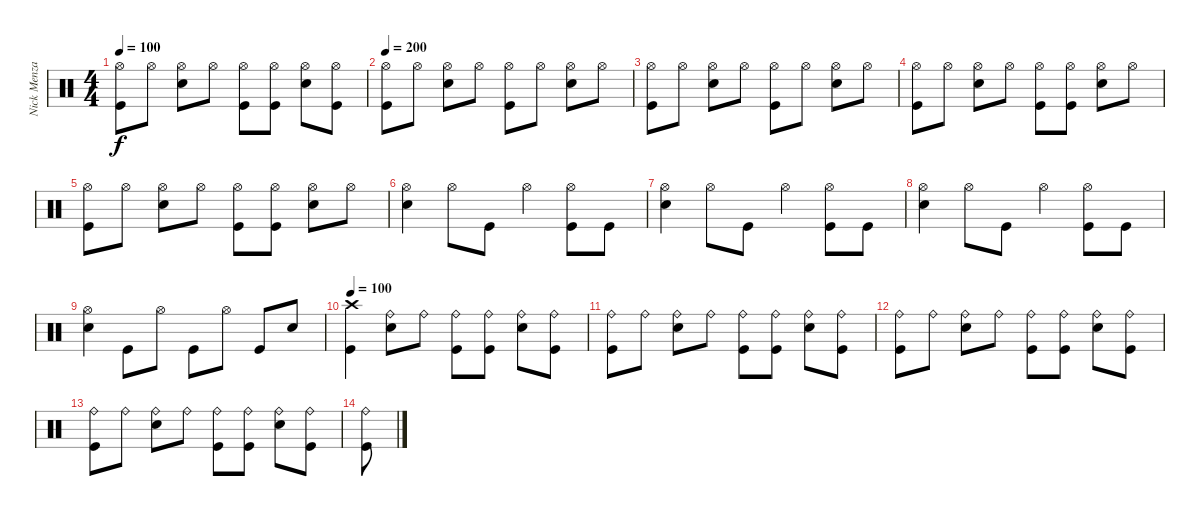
\track ("Nick Menza" "Nick Menza") {instrument percussion}
\staff {score}
\articulation defaults
\ts (4 4)
\tempo 100
\clef neutral
\ks c
("Hi-Hat (open)" "Kick (hit)").8{dy f} "Hi-Hat (open)".8 ("Hi-Hat (open)" "Snare (hit) 2").8 "Hi-Hat (open)".8 ("Hi-Hat (open)" "Kick (hit)").8 ("Hi-Hat (open)" "Kick (hit)").8 ("Hi-Hat (open)" "Snare (hit) 2").8 ("Hi-Hat (open)" "Kick (hit)").8 |
\tempo 200
("Hi-Hat (open)" "Kick (hit)").8 "Hi-Hat (open)".8 ("Hi-Hat (open)" "Snare (hit) 2").8 "Hi-Hat (open)".8 ("Hi-Hat (open)" "Kick (hit)").8 "Hi-Hat (open)".8 ("Hi-Hat (open)" "Snare (hit) 2").8 "Hi-Hat (open)".8 |
("Hi-Hat (open)" "Kick (hit)").8 "Hi-Hat (open)".8 ("Hi-Hat (open)" "Snare (hit) 2").8 "Hi-Hat (open)".8 ("Hi-Hat (open)" "Kick (hit)").8 "Hi-Hat (open)".8 ("Hi-Hat (open)" "Snare (hit) 2").8 "Hi-Hat (open)".8 |
("Hi-Hat (open)" "Kick (hit)").8 "Hi-Hat (open)".8 ("Hi-Hat (open)" "Snare (hit) 2").8 "Hi-Hat (open)".8 ("Hi-Hat (open)" "Kick (hit)").8 ("Hi-Hat (open)" "Kick (hit)").8 ("Hi-Hat (open)" "Snare (hit) 2").8 "Hi-Hat (open)".8 |
("Hi-Hat (open)" "Kick (hit)").8 "Hi-Hat (open)".8 ("Hi-Hat (open)" "Snare (hit) 2").8 "Hi-Hat (open)".8 ("Hi-Hat (open)" "Kick (hit)").8 ("Hi-Hat (open)" "Kick (hit)").8 ("Hi-Hat (open)" "Snare (hit) 2").8 "Hi-Hat (open)".8 |
("Hi-Hat (open)" "Snare (hit) 2").4 "Hi-Hat (open)".8 "Kick (hit)".8 "Hi-Hat (open)".4 ("Hi-Hat (open)" "Kick (hit)").8 "Kick (hit)".8 |
("Hi-Hat (open)" "Snare (hit) 2").4 "Hi-Hat (open)".8 "Kick (hit)".8 "Hi-Hat (open)".4 ("Hi-Hat (open)" "Kick (hit)").8 "Kick (hit)".8 |
("Hi-Hat (open)" "Snare (hit) 2").4 "Hi-Hat (open)".8 "Kick (hit)".8 "Hi-Hat (open)".4 ("Hi-Hat (open)" "Kick (hit)").8 "Kick (hit)".8 |
("Hi-Hat (open)" "Snare (hit) 2").4 "Kick (hit)".8 "Hi-Hat (open)".8 "Kick (hit)".8 "Hi-Hat (open)".8 "Kick (hit)".8 "Snare (hit) 2".8 |
\tempo 100
("Crash high (hit)" "Kick (hit)").4 ("Ride (bell)" "Snare (hit) 2").8 "Ride (bell)".8 ("Ride (bell)" "Kick (hit)").8 ("Ride (bell)" "Kick (hit)").8 ("Ride (bell)" "Snare (hit) 2").8 ("Ride (bell)" "Kick (hit)").8 |
("Ride (bell)" "Kick (hit)").8 "Ride (bell)".8 ("Ride (bell)" "Snare (hit) 2").8 "Ride (bell)".8 ("Ride (bell)" "Kick (hit)").8 ("Ride (bell)" "Kick (hit)").8 ("Ride (bell)" "Snare (hit) 2").8 ("Ride (bell)" "Kick (hit)").8 |
("Ride (bell)" "Kick (hit)").8 "Ride (bell)".8 ("Ride (bell)" "Snare (hit) 2").8 "Ride (bell)".8 ("Ride (bell)" "Kick (hit)").8 ("Ride (bell)" "Kick (hit)").8 ("Ride (bell)" "Snare (hit) 2").8 ("Ride (bell)" "Kick (hit)").8 |
("Ride (bell)" "Kick (hit)").8 "Ride (bell)".8 ("Ride (bell)" "Snare (hit) 2").8 "Ride (bell)".8 ("Ride (bell)" "Kick (hit)").8 ("Ride (bell)" "Kick (hit)").8 ("Ride (bell)" "Snare (hit) 2").8 ("Ride (bell)" "Kick (hit)").8 |
("Ride (bell)" "Kick (hit)").8
